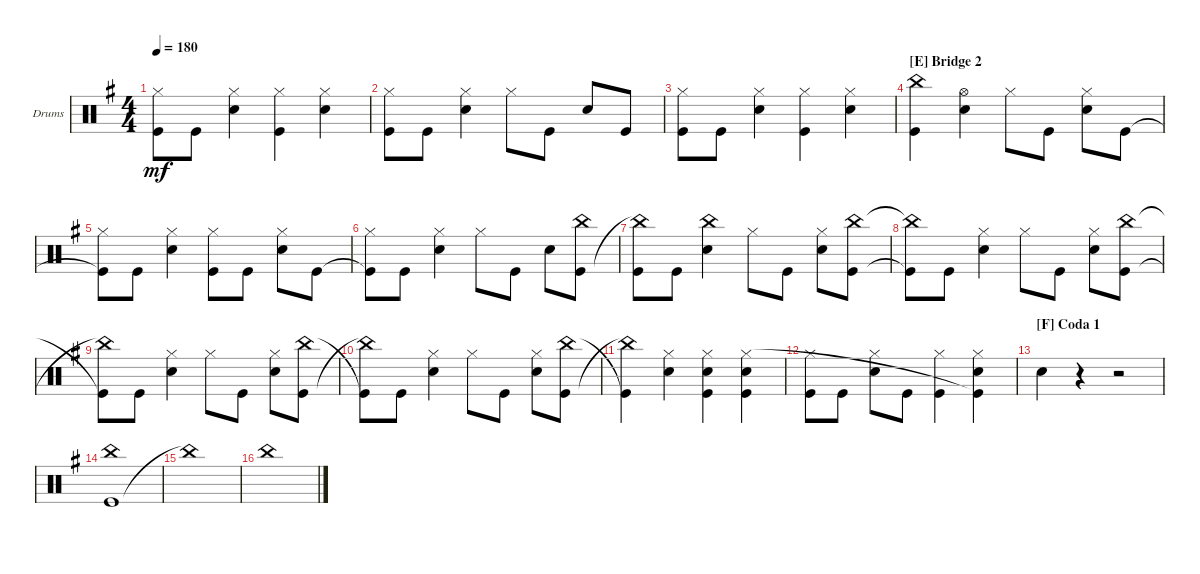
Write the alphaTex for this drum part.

\defaultSystemsLayout 4
\bracketExtendMode groupsimilarinstruments
\firstSystemTrackNameOrientation horizontal
\otherSystemsTrackNameOrientation horizontal
\track ("Drumkit" "Drums") {instrument percussion}
\staff {score}
\articulation defaults
\ts (4 4)
\tempo 180
\clef neutral
\scale
0.333333
\ks g
("Hi-Hat (closed)" "Kick (hit)"{t}).8{dy mf} "Kick (hit)".8 ("Snare (hit) 2" "Hi-Hat (closed)").4 ("Kick (hit)" "Hi-Hat (closed)").4 ("Snare (hit) 2" "Hi-Hat (closed)").4 |
\scale
0.333333 ("Kick (hit)" "Hi-Hat (closed)").8 "Kick (hit)".8 ("Snare (hit) 2" "Hi-Hat (closed)").4 "Hi-Hat (closed)".8 "Kick (hit)".8 "Snare (hit) 2".8 "Kick (hit)".8 |
\scale
0.333333 ("Kick (hit)" "Hi-Hat (closed)").8 "Kick (hit)".8 ("Snare (hit) 2" "Hi-Hat (closed)").4 ("Hi-Hat (closed)" "Kick (hit)").4 ("Snare (hit) 2" "Hi-Hat (closed)").4 |
\section ("E" "Bridge 2")
\scale
0.333333 ("Kick (hit)" "China (hit)").4 ("Snare (hit) 2" "Hi-Hat (open)").4 "Hi-Hat (closed)".8 "Kick (hit)".8 ("Snare (hit) 2" "Hi-Hat (closed)").8 "Kick (hit)".8 |
\scale
0.333333 ("Kick (hit)"{t} "Hi-Hat (closed)").8 "Kick (hit)".8 ("Snare (hit) 2" "Hi-Hat (closed)").4 ("Kick (hit)" "Hi-Hat (closed)").8 "Kick (hit)".8 ("Snare (hit) 2" "Hi-Hat (closed)").8 "Kick (hit)".8 |
\scale
0.333333 ("Kick (hit)"{t} "Hi-Hat (closed)").8 "Kick (hit)".8 ("Snare (hit) 2" "Hi-Hat (closed)").4 "Hi-Hat (closed)".8 "Kick (hit)".8 "Snare (hit) 2".8 ("Kick (hit)" "China (hit)").8 |
\scale
0.333333 ("China (hit)"{t} "Kick (hit)").8 "Kick (hit)".8 ("Snare (hit) 2" "China (hit)").4 "Hi-Hat (closed)".8 "Kick (hit)".8 ("Snare (hit) 2" "Hi-Hat (closed)").8 ("China (hit)" "Kick (hit)").8 |
\scale
0.333333 ("China (hit)"{t} "Kick (hit)"{t}).8 "Kick (hit)".8 ("Snare (hit) 2" "Hi-Hat (closed)").4 "Hi-Hat (closed)".8 "Kick (hit)".8 ("Snare (hit) 2" "Hi-Hat (closed)").8 ("Kick (hit)" "China (hit)").8 |
\scale
0.333333 ("China (hit)"{t} "Kick (hit)"{t}).8 "Kick (hit)".8 ("Snare (hit) 2" "Hi-Hat (closed)").4 "Hi-Hat (closed)".8 "Kick (hit)".8 ("Snare (hit) 2" "Hi-Hat (closed)").8 ("Kick (hit)" "China (hit)").8 |
\scale
0.333333 ("China (hit)"{t} "Kick (hit)"{t}).8 "Kick (hit)".8 ("Snare (hit) 2" "Hi-Hat (closed)").4 "Hi-Hat (closed)".8 "Kick (hit)".8 ("Snare (hit) 2" "Hi-Hat (closed)").8 ("Kick (hit)" "China (hit)").8 |
\scale
0.333333 ("China (hit)"{t} "Kick (hit)"{t}).4 ("Snare (hit) 2" "Hi-Hat (closed)").4 ("Snare (hit) 2" "Hi-Hat (closed)" "Kick (hit)").4 ("Kick (hit)" "Snare (hit) 2" "Hi-Hat (closed)").4 |
\scale
0.333333 ("Kick (hit)" "Hi-Hat (closed)").8 "Kick (hit)".8 ("Snare (hit) 2" "Hi-Hat (closed)").8 "Kick (hit)".8 ("Hi-Hat (closed)" "Kick (hit)").4 ("Snare (hit) 2" "Hi-Hat (closed)" "Kick (hit)"{t}).4 |
\section ("F" "Coda 1")
\scale
0.333333 "Snare (hit) 2".4 r.4 r.2 |
\scale
0.333333 ("Kick (hit)" "China (hit)").1 |
\scale
0.333333 "China (hit)"{t}.1 |
\scale
0.333333 "China (hit)".1
